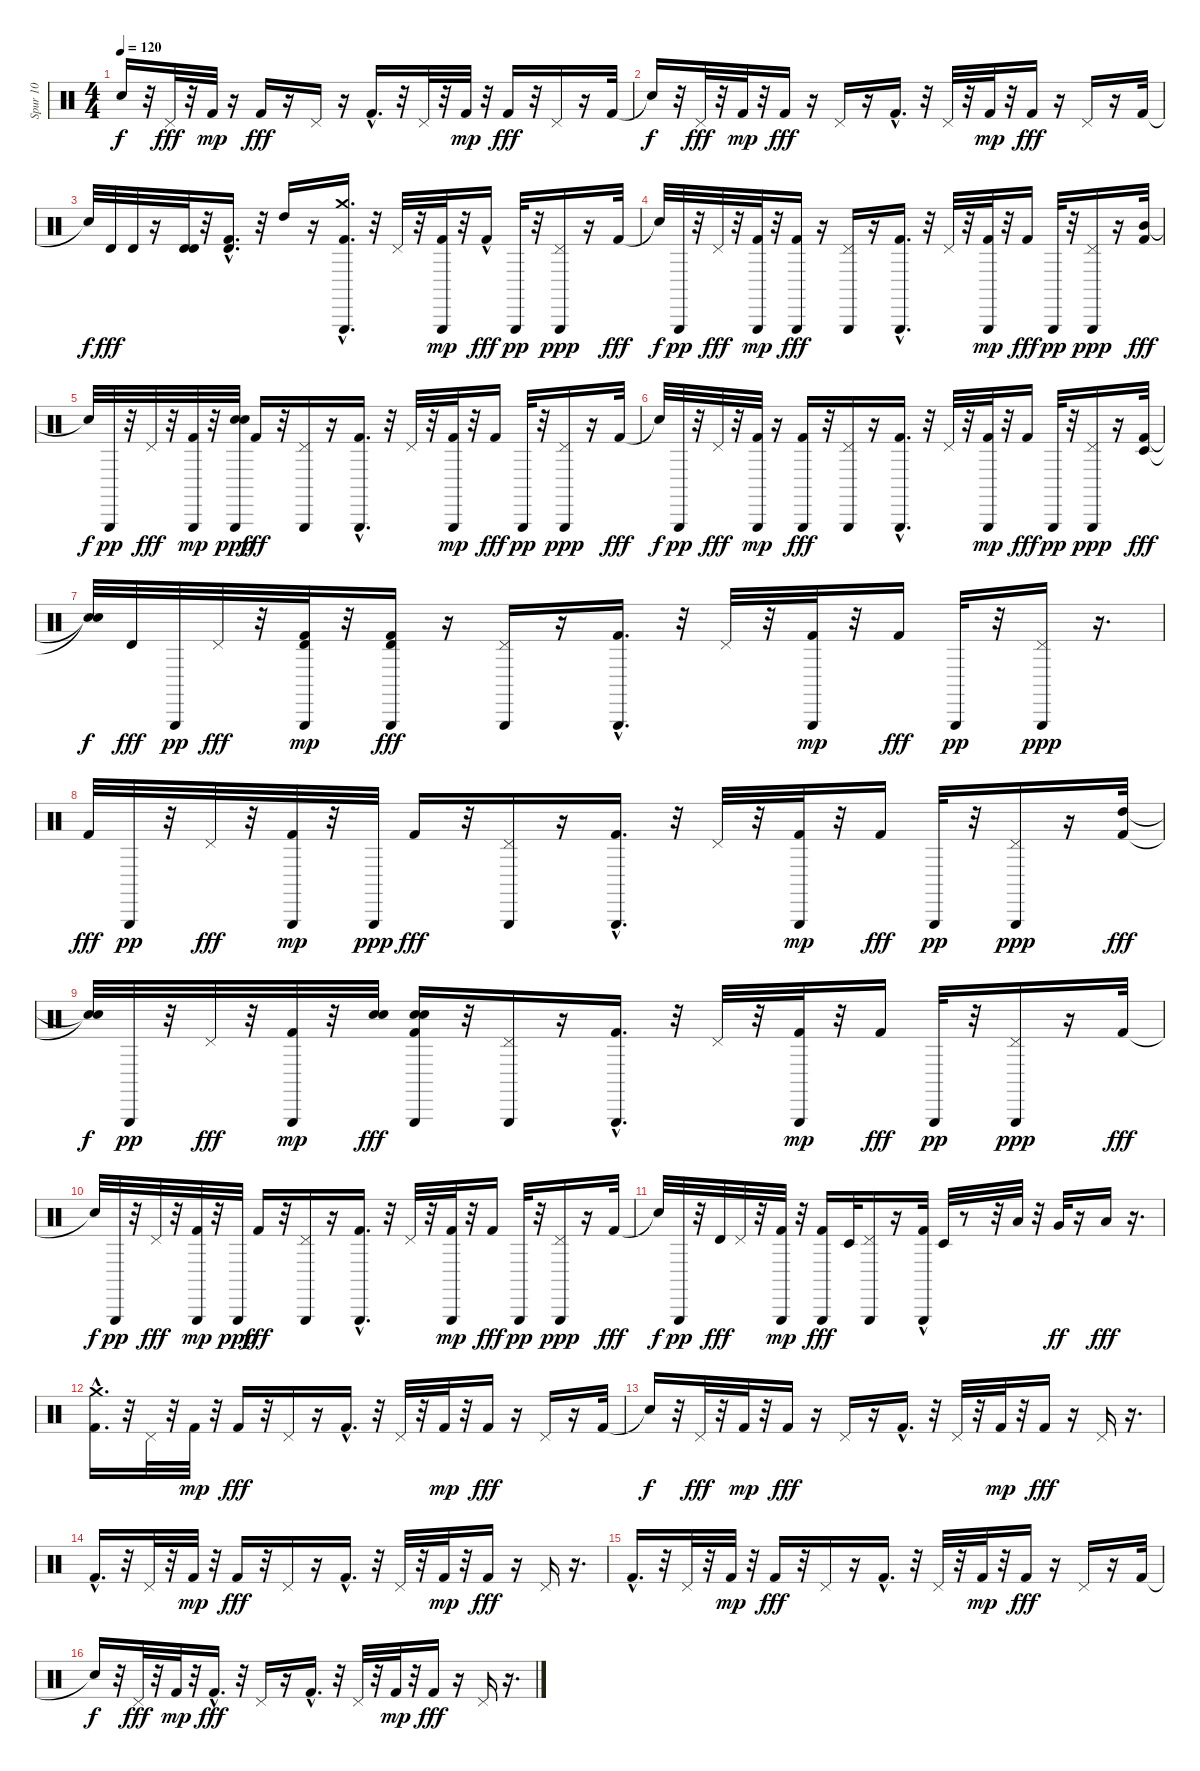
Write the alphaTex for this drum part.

\track ("Spur 10" "Spur 10") {instrument percussion}
\staff {score}
\articulation defaults
\ts (4 4)
\tempo 120
\clef neutral
\ks c "Snare (hit)"{t}.16{dy f}
r.32 "Pedal Hi-Hat (hit)".32{dy fff} r.32 "Kick (hit) 2".32{dy mp} r.16 "Kick (hit) 2".16{dy fff} r.16 "Pedal Hi-Hat (hit)".16 r.16 "Kick (hit) 2"{hac}.16{d} r.32 "Pedal Hi-Hat (hit)".32 r.32 "Kick (hit) 2".32{dy mp} r.32 "Kick (hit) 2".16{dy fff} r.32 "Pedal Hi-Hat (hit)".16 r.16 "Kick (hit) 2".32 |
"Snare (hit)"{t}.16{dy f} r.32 "Pedal Hi-Hat (hit)".32{dy fff} r.32 "Kick (hit) 2".32{dy mp} r.32 "Kick (hit) 2".16{dy fff} r.16 "Pedal Hi-Hat (hit)".16 r.16 "Kick (hit) 2"{hac}.16{d} r.32 "Pedal Hi-Hat (hit)".32 r.32 "Kick (hit) 2".32{dy mp} r.32 "Kick (hit) 2".16{dy fff} r.16 "Pedal Hi-Hat (hit)".16 r.16 "Kick (hit) 2".32 |
"Snare (hit)"{t}.32{dy f} "Timbale high (hit)".32{dy fff} "Timbale high (hit)".32 r.16 ("Timbale high (hit)" "Timbale high (hit)").32 r.32 ("Kick (hit) 2"{hac} "Timbale high (hit)").16{d} r.32 "High Tom (hit)".16 r.16 ("Crash medium (hit)" "Triangle (hit)" "Kick (hit) 2"{hac}).16{d} r.32 "Pedal Hi-Hat (hit)".32 r.32 ("Triangle (hit)" "Kick (hit) 2").32{dy mp} r.32 "Kick (hit) 2"{hac}.16{dy fff} "Triangle (hit)".32{dy pp} r.32 ("Pedal Hi-Hat (hit)" "Triangle (hit)").16{dy ppp} r.16 "Kick (hit) 2".32{dy fff} |
"Snare (hit)"{t}.32{dy f} "Triangle (hit)".32{dy pp} r.32 "Pedal Hi-Hat (hit)".32{dy fff} r.32 ("Triangle (hit)" "Kick (hit) 2").32{dy mp} r.32 ("Triangle (hit)" "Kick (hit) 2").16{dy fff} r.16 ("Triangle (hit)" "Pedal Hi-Hat (hit)").16 r.16 ("Triangle (hit)" "Kick (hit) 2"{hac}).16{d} r.32 "Pedal Hi-Hat (hit)".32 r.32 ("Triangle (hit)" "Kick (hit) 2").32{dy mp} r.32 "Kick (hit) 2".16{dy fff} "Triangle (hit)".32{dy pp} r.32 ("Pedal Hi-Hat (hit)" "Triangle (hit)").16{dy ppp} r.16 ("Mid Tom (hit)" "Kick (hit) 2").32{dy fff} |
"Snare (hit)"{t}.32{dy f} "Triangle (hit)".32{dy pp} r.32 "Pedal Hi-Hat (hit)".32{dy fff} r.32 ("Triangle (hit)" "Kick (hit) 2").32{dy mp} r.32 ("Hand Clap (hit)" "Snare (hit) 2" "Triangle (hit)").32{dy ppp} "Kick (hit) 2".16{dy fff} r.32 ("Triangle (hit)" "Pedal Hi-Hat (hit)").16 r.16 ("Triangle (hit)" "Kick (hit) 2"{hac}).16{d} r.32 "Pedal Hi-Hat (hit)".32 r.32 ("Triangle (hit)" "Kick (hit) 2").32{dy mp} r.32 "Kick (hit) 2".16{dy fff} "Triangle (hit)".32{dy pp} r.32 ("Pedal Hi-Hat (hit)" "Triangle (hit)").16{dy ppp} r.16 "Kick (hit) 2".32{dy fff} |
"Snare (hit)"{t}.32{dy f} "Triangle (hit)".32{dy pp} r.32 "Pedal Hi-Hat (hit)".32{dy fff} r.32 ("Triangle (hit)" "Kick (hit) 2").32{dy mp} r.16 ("Triangle (hit)" "Kick (hit) 2").16{dy fff} r.32 ("Triangle (hit)" "Pedal Hi-Hat (hit)").16 r.16 ("Triangle (hit)" "Kick (hit) 2"{hac}).16{d} r.32 "Pedal Hi-Hat (hit)".32 r.32 ("Triangle (hit)" "Kick (hit) 2").32{dy mp} r.32 "Kick (hit) 2".16{dy fff} "Triangle (hit)".32{dy pp} r.32 ("Pedal Hi-Hat (hit)" "Triangle (hit)").16{dy ppp} r.16 ("Timbale low (hit)" "Kick (hit) 2").32{dy fff} |
("Snare (hit)"{t} "Snare (hit)"{t}).32{dy f} "Timbale high (hit)".32{dy fff} "Triangle (hit)".32{dy pp} "Pedal Hi-Hat (hit)".32{dy fff} r.32 ("Timbale high (hit)" "Triangle (hit)" "Kick (hit) 2").32{dy mp} r.32 ("Timbale high (hit)" "Triangle (hit)" "Kick (hit) 2").16{dy fff} r.16 ("Triangle (hit)" "Pedal Hi-Hat (hit)").16 r.16 ("Triangle (hit)" "Kick (hit) 2"{hac}).16{d} r.32 "Pedal Hi-Hat (hit)".32 r.32 ("Triangle (hit)" "Kick (hit) 2").32{dy mp} r.32 "Kick (hit) 2".16{dy fff} "Triangle (hit)".32{dy pp} r.32 ("Pedal Hi-Hat (hit)" "Triangle (hit)").16{dy ppp} r.16{d} |
"Kick (hit) 2".32{dy fff} "Triangle (hit)".32{dy pp} r.32 "Pedal Hi-Hat (hit)".32{dy fff} r.32 ("Triangle (hit)" "Kick (hit) 2").32{dy mp} r.32 "Triangle (hit)".32{dy ppp} "Kick (hit) 2".16{dy fff} r.32 ("Triangle (hit)" "Pedal Hi-Hat (hit)").16 r.16 ("Triangle (hit)" "Kick (hit) 2"{hac}).16{d} r.32 "Pedal Hi-Hat (hit)".32 r.32 ("Triangle (hit)" "Kick (hit) 2").32{dy mp} r.32 "Kick (hit) 2".16{dy fff} "Triangle (hit)".32{dy pp} r.32 ("Pedal Hi-Hat (hit)" "Triangle (hit)").16{dy ppp} r.16 ("High Tom (hit)" "Kick (hit) 2").32{dy fff} |
("Snare (hit)"{t} "Snare (hit)"{t}).32{dy f} "Triangle (hit)".32{dy pp} r.32 "Pedal Hi-Hat (hit)".32{dy fff} r.32 ("Triangle (hit)" "Kick (hit) 2").32{dy mp} r.32 ("Snare (hit) 2" "Hand Clap (hit)").32{dy fff} ("Triangle (hit)" "Kick (hit) 2" "Hand Clap (hit)" "Snare (hit) 2").16 r.32 ("Triangle (hit)" "Pedal Hi-Hat (hit)").16 r.16 ("Triangle (hit)" "Kick (hit) 2"{hac}).16{d} r.32 "Pedal Hi-Hat (hit)".32 r.32 ("Triangle (hit)" "Kick (hit) 2").32{dy mp} r.32 "Kick (hit) 2".16{dy fff} "Triangle (hit)".32{dy pp} r.32 ("Pedal Hi-Hat (hit)" "Triangle (hit)").16{dy ppp} r.16 "Kick (hit) 2".32{dy fff} |
"Snare (hit)"{t}.32{dy f} "Triangle (hit)".32{dy pp} r.32 "Pedal Hi-Hat (hit)".32{dy fff} r.32 ("Triangle (hit)" "Kick (hit) 2").32{dy mp} r.32 "Triangle (hit)".32{dy ppp} "Kick (hit) 2".16{dy fff} r.32 ("Triangle (hit)" "Pedal Hi-Hat (hit)").16 r.16 ("Triangle (hit)" "Kick (hit) 2"{hac}).16{d} r.32 "Pedal Hi-Hat (hit)".32 r.32 ("Triangle (hit)" "Kick (hit) 2").32{dy mp} r.32 "Kick (hit) 2".16{dy fff} "Triangle (hit)".32{dy pp} r.32 ("Pedal Hi-Hat (hit)" "Triangle (hit)").16{dy ppp} r.16 "Kick (hit) 2".32{dy fff} |
"Snare (hit)"{t}.32{dy f} "Triangle (hit)".32{dy pp} r.32 "Timbale high (hit)".32{dy fff} "Pedal Hi-Hat (hit)".32 r.32 ("Triangle (hit)" "Kick (hit) 2").32{dy mp} r.32 ("Triangle (hit)" "Kick (hit) 2").16{dy fff} "Timbale low (hit)".32 ("Triangle (hit)" "Pedal Hi-Hat (hit)").16 r.16 ("Triangle (hit)" "Kick (hit) 2"{hac}).32 "Timbale low (hit)".32 r.8 r.32 "Low Tom (hit)".32 r.32 "Very Low Tom (hit)".32{dy ff} r.16 "Low Floor Tom (hit)".16{dy fff} r.16{d} |
("Kick (hit) 2"{hac} "Crash medium (hit)").16{d} r.32 "Pedal Hi-Hat (hit)".32 r.32 "Kick (hit) 2".32{dy mp} r.32 "Kick (hit) 2".16{dy fff} r.32 "Pedal Hi-Hat (hit)".16 r.16 "Kick (hit) 2"{hac}.16{d} r.32 "Pedal Hi-Hat (hit)".32 r.32 "Kick (hit) 2".32{dy mp} r.32 "Kick (hit) 2".16{dy fff} r.16 "Pedal Hi-Hat (hit)".16 r.16 "Kick (hit) 2".32 |
"Snare (hit)"{t}.16{dy f} r.32 "Pedal Hi-Hat (hit)".32{dy fff} r.32 "Kick (hit) 2".32{dy mp} r.32 "Kick (hit) 2".16{dy fff} r.16 "Pedal Hi-Hat (hit)".16 r.16 "Kick (hit) 2"{hac}.16{d} r.32 "Pedal Hi-Hat (hit)".32 r.32 "Kick (hit) 2".32{dy mp} r.32 "Kick (hit) 2".16{dy fff} r.16 "Pedal Hi-Hat (hit)".16 r.16{d} |
"Kick (hit) 2"{hac}.16{d} r.32 "Pedal Hi-Hat (hit)".32 r.32 "Kick (hit) 2".32{dy mp} r.32 "Kick (hit) 2".16{dy fff} r.32 "Pedal Hi-Hat (hit)".16 r.16 "Kick (hit) 2"{hac}.16{d} r.32 "Pedal Hi-Hat (hit)".32 r.32 "Kick (hit) 2".32{dy mp} r.32 "Kick (hit) 2".16{dy fff} r.16 "Pedal Hi-Hat (hit)".16 r.16{d} |
"Kick (hit) 2"{hac}.16{d} r.32 "Pedal Hi-Hat (hit)".32 r.32 "Kick (hit) 2".32{dy mp} r.32 "Kick (hit) 2".16{dy fff} r.32 "Pedal Hi-Hat (hit)".16 r.16 "Kick (hit) 2"{hac}.16{d} r.32 "Pedal Hi-Hat (hit)".32 r.32 "Kick (hit) 2".32{dy mp} r.32 "Kick (hit) 2".16{dy fff} r.16 "Pedal Hi-Hat (hit)".16 r.16 "Kick (hit) 2".32 |
"Snare (hit)"{t}.16{dy f} r.32 "Pedal Hi-Hat (hit)".32{dy fff} r.32 "Kick (hit) 2".32{dy mp} r.32 "Kick (hit) 2"{hac}.16{d dy fff} r.32 "Pedal Hi-Hat (hit)".16 r.16 "Kick (hit) 2"{hac}.16{d} r.32 "Pedal Hi-Hat (hit)".32 r.32 "Kick (hit) 2".32{dy mp} r.32 "Kick (hit) 2".16{dy fff} r.16 "Pedal Hi-Hat (hit)".16 r.16{d}
